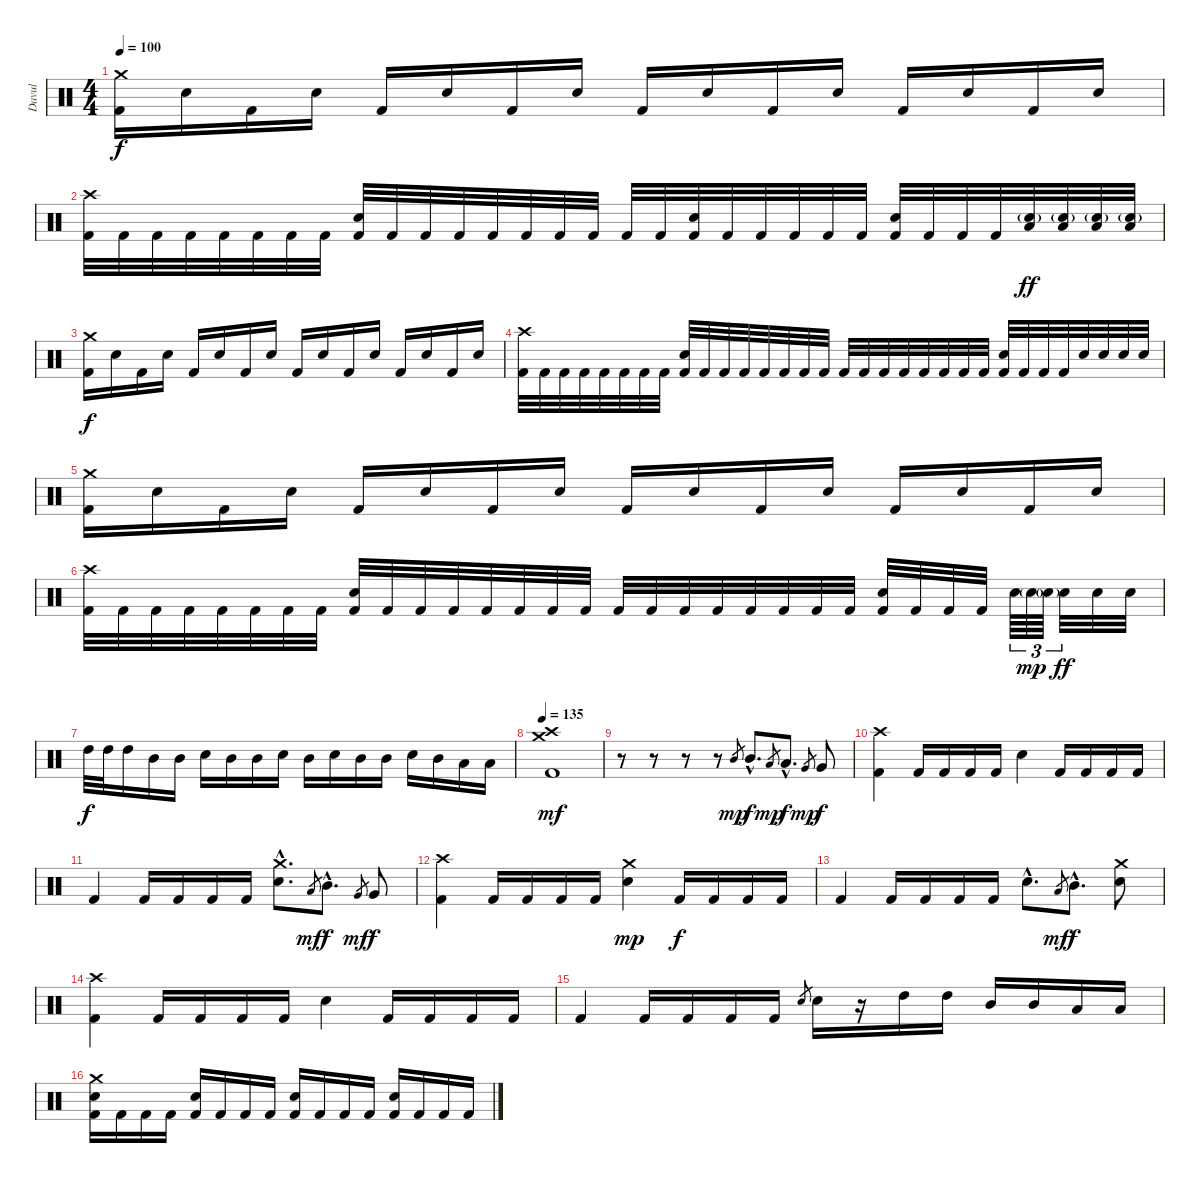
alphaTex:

\track ("Davul" "Davul") {instrument percussion}
\staff {score}
\articulation defaults
\ts (4 4)
\tempo 100
\clef neutral
\ks c
("Crash medium (hit)" "Kick (hit) 2").16{dy f} "Electric Snare (hit)".16 "Kick (hit) 2".16 "Electric Snare (hit)".16 "Kick (hit) 2".16 "Electric Snare (hit)".16 "Kick (hit) 2".16 "Electric Snare (hit)".16 "Kick (hit) 2".16 "Electric Snare (hit)".16 "Kick (hit) 2".16 "Electric Snare (hit)".16 "Kick (hit) 2".16 "Electric Snare (hit)".16 "Kick (hit) 2".16 "Electric Snare (hit)".16 |
("Crash high (hit)" "Kick (hit) 2").32 "Kick (hit) 2".32 "Kick (hit) 2".32 "Kick (hit) 2".32 "Kick (hit) 2".32 "Kick (hit) 2".32 "Kick (hit) 2".32 "Kick (hit) 2".32 ("Electric Snare (hit)" "Kick (hit) 2").32 "Kick (hit) 2".32 "Kick (hit) 2".32 "Kick (hit) 2".32 "Kick (hit) 2".32 "Kick (hit) 2".32 "Kick (hit) 2".32 "Kick (hit) 2".32 "Kick (hit) 2".32 "Kick (hit) 2".32 ("Electric Snare (hit)" "Kick (hit) 2").32 "Kick (hit) 2".32 "Kick (hit) 2".32 "Kick (hit) 2".32 "Kick (hit) 2".32 "Kick (hit) 2".32 ("Electric Snare (hit)" "Kick (hit) 2").32 "Kick (hit) 2".32 "Kick (hit) 2".32 "Kick (hit) 2".32 ("Electric Snare (hit)"{g} "Low Tom (hit)").32{dy ff} ("Electric Snare (hit)"{g} "Low Tom (hit)").32 ("Electric Snare (hit)"{g} "Low Tom (hit)").32 ("Electric Snare (hit)"{g} "Low Tom (hit)").32 |
("Crash medium (hit)" "Kick (hit) 2").16{dy f} "Electric Snare (hit)".16 "Kick (hit) 2".16 "Electric Snare (hit)".16 "Kick (hit) 2".16 "Electric Snare (hit)".16 "Kick (hit) 2".16 "Electric Snare (hit)".16 "Kick (hit) 2".16 "Electric Snare (hit)".16 "Kick (hit) 2".16 "Electric Snare (hit)".16 "Kick (hit) 2".16 "Electric Snare (hit)".16 "Kick (hit) 2".16 "Electric Snare (hit)".16 |
("Crash high (hit)" "Kick (hit) 2").32 "Kick (hit) 2".32 "Kick (hit) 2".32 "Kick (hit) 2".32 "Kick (hit) 2".32 "Kick (hit) 2".32 "Kick (hit) 2".32 "Kick (hit) 2".32 ("Electric Snare (hit)" "Kick (hit) 2").32 "Kick (hit) 2".32 "Kick (hit) 2".32 "Kick (hit) 2".32 "Kick (hit) 2".32 "Kick (hit) 2".32 "Kick (hit) 2".32 "Kick (hit) 2".32 "Kick (hit) 2".32 "Kick (hit) 2".32 "Kick (hit) 2".32 "Kick (hit) 2".32 "Kick (hit) 2".32 "Kick (hit) 2".32 "Kick (hit) 2".32 "Kick (hit) 2".32 ("Electric Snare (hit)" "Kick (hit) 2").32 "Kick (hit) 2".32 "Kick (hit) 2".32 "Kick (hit) 2".32 "Electric Snare (hit)".32 "Electric Snare (hit)".32 "Electric Snare (hit)".32 "Electric Snare (hit)".32 |
("Crash medium (hit)" "Kick (hit) 2").16 "Electric Snare (hit)".16 "Kick (hit) 2".16 "Electric Snare (hit)".16 "Kick (hit) 2".16 "Electric Snare (hit)".16 "Kick (hit) 2".16 "Electric Snare (hit)".16 "Kick (hit) 2".16 "Electric Snare (hit)".16 "Kick (hit) 2".16 "Electric Snare (hit)".16 "Kick (hit) 2".16 "Electric Snare (hit)".16 "Kick (hit) 2".16 "Electric Snare (hit)".16 |
("Crash high (hit)" "Kick (hit) 2").32 "Kick (hit) 2".32 "Kick (hit) 2".32 "Kick (hit) 2".32 "Kick (hit) 2".32 "Kick (hit) 2".32 "Kick (hit) 2".32 "Kick (hit) 2".32 ("Electric Snare (hit)" "Kick (hit) 2").32 "Kick (hit) 2".32 "Kick (hit) 2".32 "Kick (hit) 2".32 "Kick (hit) 2".32 "Kick (hit) 2".32 "Kick (hit) 2".32 "Kick (hit) 2".32 "Kick (hit) 2".32 "Kick (hit) 2".32 "Kick (hit) 2".32 "Kick (hit) 2".32 "Kick (hit) 2".32 "Kick (hit) 2".32 "Kick (hit) 2".32 "Kick (hit) 2".32 ("Electric Snare (hit)" "Kick (hit) 2").32 "Kick (hit) 2".32 "Kick (hit) 2".32 "Kick (hit) 2".32 "Electric Snare (hit)".64{tu (3 2)} "Electric Snare (hit)"{g}.64{tu (3 2) dy mp} "Electric Snare (hit)"{g}.64{tu (3 2)} "Electric Snare (hit)".32{dy ff} "Electric Snare (hit)".32 "Electric Snare (hit)".32 |
"High Tom (hit)".32{dy f} "High Tom (hit)".32 "High Tom (hit)".16 "Mid Tom (hit)".16 "Mid Tom (hit)".16 "Electric Snare (hit)".16 "Mid Tom (hit)".16 "Mid Tom (hit)".16 "Electric Snare (hit)".16 "Mid Tom (hit)".16 "Electric Snare (hit)".16 "Mid Tom (hit)".16 "Mid Tom (hit)".16 "Electric Snare (hit)".16 "Mid Tom (hit)".16 "Low Tom (hit)".16 "Low Tom (hit)".16 |
\section ("" "")
\tempo 135
("Crash high (hit)" "Crash medium (hit)" "Kick (hit) 2").1{dy mf} |
r.8 r.8 r.8 r.8 "Mid Tom (hit)".8{gr dy mp} "Mid Tom (hit)"{hac}.8{d dy f} "Low Tom (hit)".8{gr dy mp} "Low Tom (hit)"{hac}.8{d dy f} "Very Low Tom (hit)".8{gr dy mp} "Very Low Tom (hit)".8{dy f} |
("Crash high (hit)" "Kick (hit) 2").4 "Kick (hit) 2".16 "Kick (hit) 2".16 "Kick (hit) 2".16 "Kick (hit) 2".16 "Electric Snare (hit)".4 "Kick (hit) 2".16 "Kick (hit) 2".16 "Kick (hit) 2".16 "Kick (hit) 2".16 |
"Kick (hit) 2".4 "Kick (hit) 2".16 "Kick (hit) 2".16 "Kick (hit) 2".16 "Kick (hit) 2".16 ("Crash medium (hit)"{hac} "Electric Snare (hit)"{hac}).8{d} "Low Tom (hit)".8{gr dy mf} "Mid Tom (hit)"{hac}.8{d dy f} "Very Low Tom (hit)".8{gr dy mf} "Very Low Tom (hit)".8{dy f} |
("Crash high (hit)" "Kick (hit) 2").4 "Kick (hit) 2".16 "Kick (hit) 2".16 "Kick (hit) 2".16 "Kick (hit) 2".16 ("Crash medium (hit)" "Electric Snare (hit)").4{dy mp} "Kick (hit) 2".16{dy f} "Kick (hit) 2".16 "Kick (hit) 2".16 "Kick (hit) 2".16 |
"Kick (hit) 2".4 "Kick (hit) 2".16 "Kick (hit) 2".16 "Kick (hit) 2".16 "Kick (hit) 2".16 "Electric Snare (hit)"{hac}.8{d} "Low Tom (hit)".8{gr dy mf} "Mid Tom (hit)"{hac}.8{d dy f} ("Crash medium (hit)" "Electric Snare (hit)").8 |
("Crash high (hit)" "Kick (hit) 2").4 "Kick (hit) 2".16 "Kick (hit) 2".16 "Kick (hit) 2".16 "Kick (hit) 2".16 "Electric Snare (hit)".4 "Kick (hit) 2".16 "Kick (hit) 2".16 "Kick (hit) 2".16 "Kick (hit) 2".16 |
"Kick (hit) 2".4 "Kick (hit) 2".16 "Kick (hit) 2".16 "Kick (hit) 2".16 "Kick (hit) 2".16 "Electric Snare (hit)".8{gr} "Electric Snare (hit)".16 r.16 "High Tom (hit)".16 "High Tom (hit)".16 "Mid Tom (hit)".16 "Mid Tom (hit)".16 "Low Tom (hit)".16 "Low Tom (hit)".16 |
("Crash medium (hit)" "Electric Snare (hit)" "Kick (hit) 2").16 "Kick (hit) 2".16 "Kick (hit) 2".16 "Kick (hit) 2".16 ("Electric Snare (hit)" "Kick (hit) 2").16 "Kick (hit) 2".16 "Kick (hit) 2".16 "Kick (hit) 2".16 ("Electric Snare (hit)" "Kick (hit) 2").16 "Kick (hit) 2".16 "Kick (hit) 2".16 "Kick (hit) 2".16 ("Electric Snare (hit)" "Kick (hit) 2").16 "Kick (hit) 2".16 "Kick (hit) 2".16 "Kick (hit) 2".16
